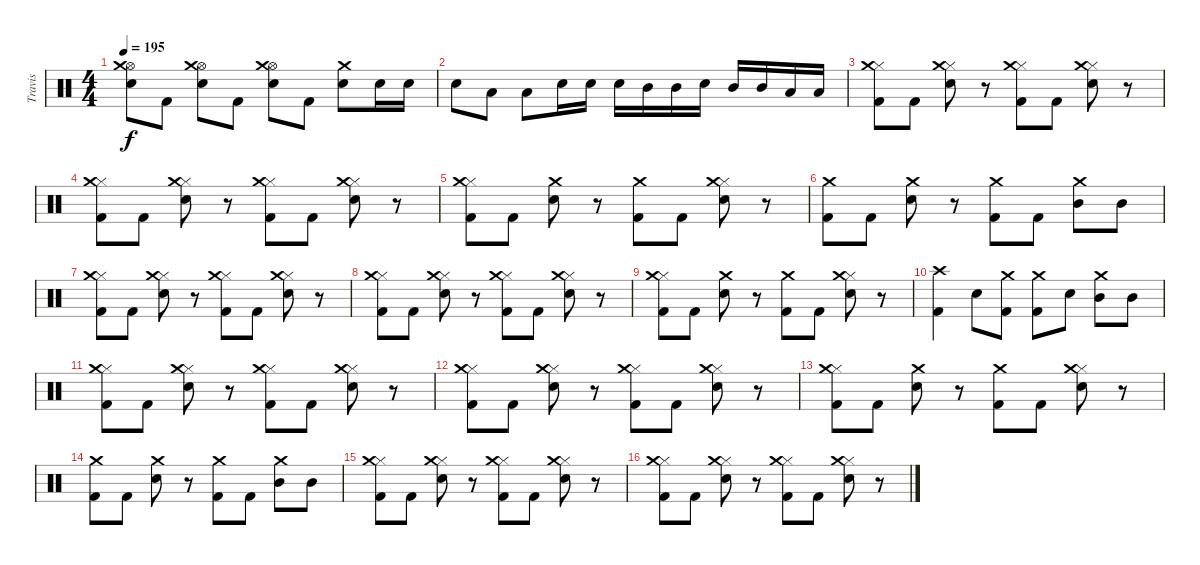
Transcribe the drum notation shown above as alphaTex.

\track ("Travis" "Travis") {instrument percussion}
\staff {score}
\articulation defaults
\ts (4 4)
\tempo 195
\clef neutral
\ks c
("Hi-Hat (open)" "Electric Snare (hit)" "Crash medium (hit)").8{dy f} "Kick (hit) 2".8 ("Hi-Hat (open)" "Electric Snare (hit)" "Crash medium (hit)").8 "Kick (hit) 2".8 ("Hi-Hat (open)" "Electric Snare (hit)" "Crash medium (hit)").8 "Kick (hit) 2".8 ("Electric Snare (hit)" "Crash medium (hit)").8 "Electric Snare (hit)".16 "Electric Snare (hit)".16 |
"Electric Snare (hit)".8 "Low Floor Tom (hit)".8 "Low Floor Tom (hit)".8 "Electric Snare (hit)".16 "Electric Snare (hit)".16 "Electric Snare (hit)".16 "Mid Tom (hit)".16 "Mid Tom (hit)".16 "Electric Snare (hit)".16 "Mid Tom (hit)".16 "Mid Tom (hit)".16 "Low Floor Tom (hit)".16 "Low Floor Tom (hit)".16 |
("Kick (hit) 2" "Hi-Hat (closed)" "Crash medium (hit)").8 "Kick (hit) 2".8 ("Electric Snare (hit)" "Hi-Hat (closed)" "Crash medium (hit)").8 r.8 ("Kick (hit) 2" "Hi-Hat (closed)" "Crash medium (hit)").8 "Kick (hit) 2".8 ("Electric Snare (hit)" "Hi-Hat (closed)" "Crash medium (hit)").8 r.8 |
("Kick (hit) 2" "Hi-Hat (closed)" "Crash medium (hit)").8 "Kick (hit) 2".8 ("Electric Snare (hit)" "Hi-Hat (closed)" "Crash medium (hit)").8 r.8 ("Kick (hit) 2" "Hi-Hat (closed)" "Crash medium (hit)").8 "Kick (hit) 2".8 ("Electric Snare (hit)" "Hi-Hat (closed)" "Crash medium (hit)").8 r.8 |
("Kick (hit) 2" "Hi-Hat (closed)" "Crash medium (hit)").8 "Kick (hit) 2".8 ("Electric Snare (hit)" "Crash medium (hit)").8 r.8 ("Kick (hit) 2" "Crash medium (hit)").8 "Kick (hit) 2".8 ("Electric Snare (hit)" "Hi-Hat (closed)" "Crash medium (hit)").8 r.8 |
("Kick (hit) 2" "Crash medium (hit)").8 "Kick (hit) 2".8 ("Electric Snare (hit)" "Crash medium (hit)").8 r.8 ("Kick (hit) 2" "Crash medium (hit)").8 "Kick (hit) 2".8 ("Mid Tom (hit)" "Crash medium (hit)").8 "Mid Tom (hit)".8 |
("Kick (hit) 2" "Hi-Hat (closed)" "Crash medium (hit)").8 "Kick (hit) 2".8 ("Electric Snare (hit)" "Hi-Hat (closed)" "Crash medium (hit)").8 r.8 ("Kick (hit) 2" "Hi-Hat (closed)" "Crash medium (hit)").8 "Kick (hit) 2".8 ("Electric Snare (hit)" "Hi-Hat (closed)" "Crash medium (hit)").8 r.8 |
("Kick (hit) 2" "Hi-Hat (closed)" "Crash medium (hit)").8 "Kick (hit) 2".8 ("Electric Snare (hit)" "Hi-Hat (closed)" "Crash medium (hit)").8 r.8 ("Kick (hit) 2" "Hi-Hat (closed)" "Crash medium (hit)").8 "Kick (hit) 2".8 ("Electric Snare (hit)" "Hi-Hat (closed)" "Crash medium (hit)").8 r.8 |
("Kick (hit) 2" "Hi-Hat (closed)" "Crash medium (hit)").8 "Kick (hit) 2".8 ("Electric Snare (hit)" "Crash medium (hit)").8 r.8 ("Kick (hit) 2" "Crash medium (hit)").8 "Kick (hit) 2".8 ("Electric Snare (hit)" "Hi-Hat (closed)" "Crash medium (hit)").8 r.8 |
("Kick (hit) 2" "Crash high (hit)").4 "Electric Snare (hit)".8 ("Kick (hit) 2" "Crash medium (hit)").8 ("Kick (hit) 2" "Crash medium (hit)").8 "Electric Snare (hit)".8 ("Mid Tom (hit)" "Crash medium (hit)").8 "Mid Tom (hit)".8 |
("Kick (hit) 2" "Hi-Hat (closed)" "Crash medium (hit)").8 "Kick (hit) 2".8 ("Electric Snare (hit)" "Hi-Hat (closed)" "Crash medium (hit)").8 r.8 ("Kick (hit) 2" "Hi-Hat (closed)" "Crash medium (hit)").8 "Kick (hit) 2".8 ("Electric Snare (hit)" "Hi-Hat (closed)" "Crash medium (hit)").8 r.8 |
("Kick (hit) 2" "Hi-Hat (closed)" "Crash medium (hit)").8 "Kick (hit) 2".8 ("Electric Snare (hit)" "Hi-Hat (closed)" "Crash medium (hit)").8 r.8 ("Kick (hit) 2" "Hi-Hat (closed)" "Crash medium (hit)").8 "Kick (hit) 2".8 ("Electric Snare (hit)" "Hi-Hat (closed)" "Crash medium (hit)").8 r.8 |
("Kick (hit) 2" "Hi-Hat (closed)" "Crash medium (hit)").8 "Kick (hit) 2".8 ("Electric Snare (hit)" "Crash medium (hit)").8 r.8 ("Kick (hit) 2" "Crash medium (hit)").8 "Kick (hit) 2".8 ("Electric Snare (hit)" "Hi-Hat (closed)" "Crash medium (hit)").8 r.8 |
("Kick (hit) 2" "Crash medium (hit)").8 "Kick (hit) 2".8 ("Electric Snare (hit)" "Crash medium (hit)").8 r.8 ("Kick (hit) 2" "Crash medium (hit)").8 "Kick (hit) 2".8 ("Mid Tom (hit)" "Crash medium (hit)").8 "Mid Tom (hit)".8 |
("Kick (hit) 2" "Hi-Hat (closed)" "Crash medium (hit)").8 "Kick (hit) 2".8 ("Electric Snare (hit)" "Hi-Hat (closed)" "Crash medium (hit)").8 r.8 ("Kick (hit) 2" "Hi-Hat (closed)" "Crash medium (hit)").8 "Kick (hit) 2".8 ("Electric Snare (hit)" "Hi-Hat (closed)" "Crash medium (hit)").8 r.8 |
("Kick (hit) 2" "Hi-Hat (closed)" "Crash medium (hit)").8 "Kick (hit) 2".8 ("Electric Snare (hit)" "Hi-Hat (closed)" "Crash medium (hit)").8 r.8 ("Kick (hit) 2" "Hi-Hat (closed)" "Crash medium (hit)").8 "Kick (hit) 2".8 ("Electric Snare (hit)" "Hi-Hat (closed)" "Crash medium (hit)").8 r.8
